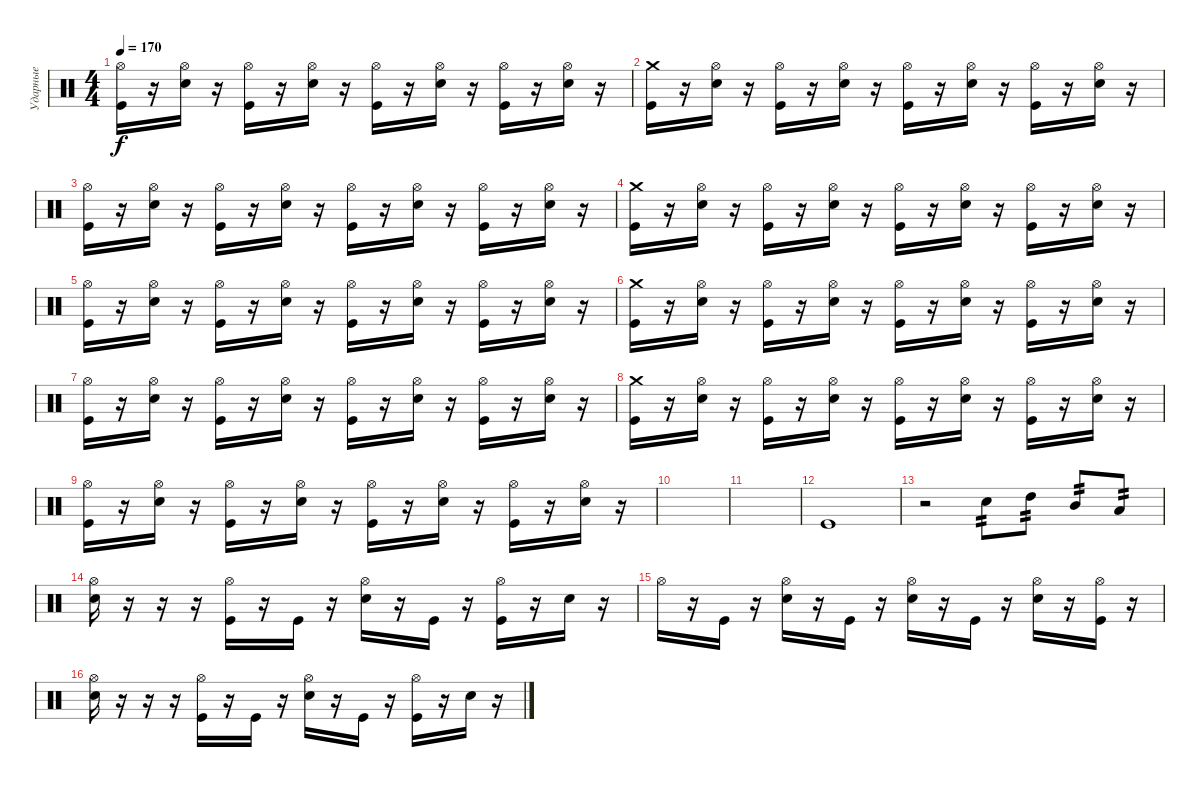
\track ("Ударные" "Ударные") {instrument percussion}
\staff {score}
\articulation defaults
\ts (4 4)
\tempo 170
\clef neutral
\ks c
("Hi-Hat (open)" "Kick (hit)").16{dy f} r.16 ("Hi-Hat (open)" "Electric Snare (hit)").16 r.16 ("Hi-Hat (open)" "Kick (hit)").16 r.16 ("Hi-Hat (open)" "Electric Snare (hit)").16 r.16 ("Hi-Hat (open)" "Kick (hit)").16 r.16 ("Hi-Hat (open)" "Electric Snare (hit)").16 r.16 ("Hi-Hat (open)" "Kick (hit)").16 r.16 ("Hi-Hat (open)" "Electric Snare (hit)").16 r.16 |
("Crash medium (hit)" "Kick (hit)").16 r.16 ("Hi-Hat (open)" "Electric Snare (hit)").16 r.16 ("Hi-Hat (open)" "Kick (hit)").16 r.16 ("Hi-Hat (open)" "Electric Snare (hit)").16 r.16 ("Hi-Hat (open)" "Kick (hit)").16 r.16 ("Hi-Hat (open)" "Electric Snare (hit)").16 r.16 ("Hi-Hat (open)" "Kick (hit)").16 r.16 ("Hi-Hat (open)" "Electric Snare (hit)").16 r.16 |
("Hi-Hat (open)" "Kick (hit)").16 r.16 ("Hi-Hat (open)" "Electric Snare (hit)").16 r.16 ("Hi-Hat (open)" "Kick (hit)").16 r.16 ("Hi-Hat (open)" "Electric Snare (hit)").16 r.16 ("Hi-Hat (open)" "Kick (hit)").16 r.16 ("Hi-Hat (open)" "Electric Snare (hit)").16 r.16 ("Hi-Hat (open)" "Kick (hit)").16 r.16 ("Hi-Hat (open)" "Electric Snare (hit)").16 r.16 |
("Crash medium (hit)" "Kick (hit)").16 r.16 ("Hi-Hat (open)" "Electric Snare (hit)").16 r.16 ("Hi-Hat (open)" "Kick (hit)").16 r.16 ("Hi-Hat (open)" "Electric Snare (hit)").16 r.16 ("Hi-Hat (open)" "Kick (hit)").16 r.16 ("Hi-Hat (open)" "Electric Snare (hit)").16 r.16 ("Hi-Hat (open)" "Kick (hit)").16 r.16 ("Hi-Hat (open)" "Electric Snare (hit)").16 r.16 |
("Hi-Hat (open)" "Kick (hit)").16 r.16 ("Hi-Hat (open)" "Electric Snare (hit)").16 r.16 ("Hi-Hat (open)" "Kick (hit)").16 r.16 ("Hi-Hat (open)" "Electric Snare (hit)").16 r.16 ("Hi-Hat (open)" "Kick (hit)").16 r.16 ("Hi-Hat (open)" "Electric Snare (hit)").16 r.16 ("Hi-Hat (open)" "Kick (hit)").16 r.16 ("Hi-Hat (open)" "Electric Snare (hit)").16 r.16 |
("Crash medium (hit)" "Kick (hit)").16 r.16 ("Hi-Hat (open)" "Electric Snare (hit)").16 r.16 ("Hi-Hat (open)" "Kick (hit)").16 r.16 ("Hi-Hat (open)" "Electric Snare (hit)").16 r.16 ("Hi-Hat (open)" "Kick (hit)").16 r.16 ("Hi-Hat (open)" "Electric Snare (hit)").16 r.16 ("Hi-Hat (open)" "Kick (hit)").16 r.16 ("Hi-Hat (open)" "Electric Snare (hit)").16 r.16 |
("Hi-Hat (open)" "Kick (hit)").16 r.16 ("Hi-Hat (open)" "Electric Snare (hit)").16 r.16 ("Hi-Hat (open)" "Kick (hit)").16 r.16 ("Hi-Hat (open)" "Electric Snare (hit)").16 r.16 ("Hi-Hat (open)" "Kick (hit)").16 r.16 ("Hi-Hat (open)" "Electric Snare (hit)").16 r.16 ("Hi-Hat (open)" "Kick (hit)").16 r.16 ("Hi-Hat (open)" "Electric Snare (hit)").16 r.16 |
("Crash medium (hit)" "Kick (hit)").16 r.16 ("Hi-Hat (open)" "Electric Snare (hit)").16 r.16 ("Hi-Hat (open)" "Kick (hit)").16 r.16 ("Hi-Hat (open)" "Electric Snare (hit)").16 r.16 ("Hi-Hat (open)" "Kick (hit)").16 r.16 ("Hi-Hat (open)" "Electric Snare (hit)").16 r.16 ("Hi-Hat (open)" "Kick (hit)").16 r.16 ("Hi-Hat (open)" "Electric Snare (hit)").16 r.16 |
("Hi-Hat (open)" "Kick (hit)").16 r.16 ("Hi-Hat (open)" "Electric Snare (hit)").16 r.16 ("Hi-Hat (open)" "Kick (hit)").16 r.16 ("Hi-Hat (open)" "Electric Snare (hit)").16 r.16 ("Hi-Hat (open)" "Kick (hit)").16 r.16 ("Hi-Hat (open)" "Electric Snare (hit)").16 r.16 ("Hi-Hat (open)" "Kick (hit)").16 r.16 ("Hi-Hat (open)" "Electric Snare (hit)").16 r.16 |
|
|
"Kick (hit)".1 |
r.2 "Electric Snare (hit)".8{tp 2} "High Tom (hit)".8{tp 2} "Mid Tom (hit)".8{tp 2} "Low Tom (hit)".8{tp 2} |
("Hi-Hat (open)" "Electric Snare (hit)").16 r.16 r.16 r.16 ("Hi-Hat (open)" "Kick (hit)").16 r.16 "Kick (hit)".16 r.16 ("Hi-Hat (open)" "Electric Snare (hit)").16 r.16 "Kick (hit)".16 r.16 ("Hi-Hat (open)" "Kick (hit)").16 r.16 "Electric Snare (hit)".16 r.16 |
"Hi-Hat (open)".16 r.16 "Kick (hit)".16 r.16 ("Hi-Hat (open)" "Electric Snare (hit)").16 r.16 "Kick (hit)".16 r.16 ("Hi-Hat (open)" "Electric Snare (hit)").16 r.16 "Kick (hit)".16 r.16 ("Hi-Hat (open)" "Electric Snare (hit)").16 r.16 ("Hi-Hat (open)" "Kick (hit)").16 r.16 |
("Hi-Hat (open)" "Electric Snare (hit)").16 r.16 r.16 r.16 ("Hi-Hat (open)" "Kick (hit)").16 r.16 "Kick (hit)".16 r.16 ("Hi-Hat (open)" "Electric Snare (hit)").16 r.16 "Kick (hit)".16 r.16 ("Hi-Hat (open)" "Kick (hit)").16 r.16 "Electric Snare (hit)".16 r.16
